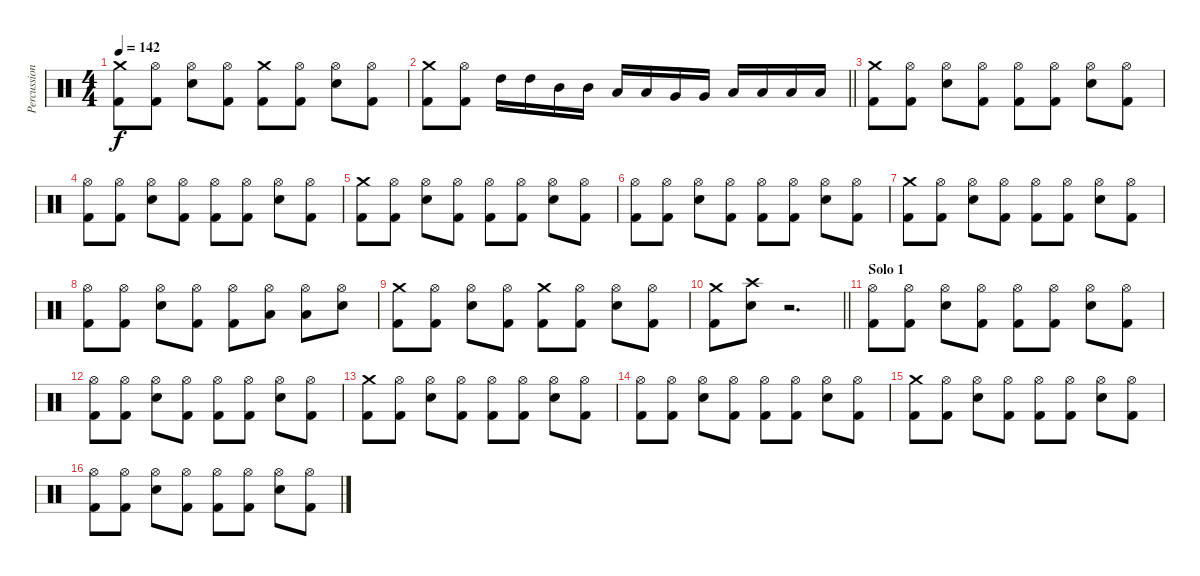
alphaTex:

\track ("Percussions" "Percussion") {instrument percussion}
\staff {score}
\articulation defaults
\ts (4 4)
\tempo 142
\clef neutral
\ks c
("Crash medium (hit)" "Kick (hit) 2").8{dy f} ("Hi-Hat (open)" "Kick (hit) 2").8 ("Hi-Hat (open)" "Electric Snare (hit)").8 ("Hi-Hat (open)" "Kick (hit) 2").8 ("Crash medium (hit)" "Kick (hit) 2").8 ("Hi-Hat (open)" "Kick (hit) 2").8 ("Hi-Hat (open)" "Electric Snare (hit)").8 ("Hi-Hat (open)" "Kick (hit) 2").8 |
\barLineRight lightlight
("Crash medium (hit)" "Kick (hit) 2").8 ("Hi-Hat (open)" "Kick (hit) 2").8 "High Tom (hit)".16 "High Tom (hit)".16 "Mid Tom (hit)".16 "Mid Tom (hit)".16 "Low Tom (hit)".16 "Low Tom (hit)".16 "Very Low Tom (hit)".16 "Very Low Tom (hit)".16 "Low Floor Tom (hit)".16 "Low Floor Tom (hit)".16 "Low Floor Tom (hit)".16 "Low Floor Tom (hit)".16 |
("Crash medium (hit)" "Kick (hit) 2").8 ("Hi-Hat (open)" "Kick (hit) 2").8 ("Hi-Hat (open)" "Electric Snare (hit)").8 ("Hi-Hat (open)" "Kick (hit) 2").8 ("Hi-Hat (open)" "Kick (hit) 2").8 ("Hi-Hat (open)" "Kick (hit) 2").8 ("Hi-Hat (open)" "Electric Snare (hit)").8 ("Hi-Hat (open)" "Kick (hit) 2").8 |
("Hi-Hat (open)" "Kick (hit) 2").8 ("Hi-Hat (open)" "Kick (hit) 2").8 ("Hi-Hat (open)" "Electric Snare (hit)").8 ("Hi-Hat (open)" "Kick (hit) 2").8 ("Hi-Hat (open)" "Kick (hit) 2").8 ("Hi-Hat (open)" "Kick (hit) 2").8 ("Hi-Hat (open)" "Electric Snare (hit)").8 ("Hi-Hat (open)" "Kick (hit) 2").8 |
("Crash medium (hit)" "Kick (hit) 2").8 ("Hi-Hat (open)" "Kick (hit) 2").8 ("Hi-Hat (open)" "Electric Snare (hit)").8 ("Hi-Hat (open)" "Kick (hit) 2").8 ("Hi-Hat (open)" "Kick (hit) 2").8 ("Hi-Hat (open)" "Kick (hit) 2").8 ("Hi-Hat (open)" "Electric Snare (hit)").8 ("Hi-Hat (open)" "Kick (hit) 2").8 |
("Hi-Hat (open)" "Kick (hit) 2").8 ("Hi-Hat (open)" "Kick (hit) 2").8 ("Hi-Hat (open)" "Electric Snare (hit)").8 ("Hi-Hat (open)" "Kick (hit) 2").8 ("Hi-Hat (open)" "Kick (hit) 2").8 ("Hi-Hat (open)" "Kick (hit) 2").8 ("Hi-Hat (open)" "Electric Snare (hit)").8 ("Hi-Hat (open)" "Kick (hit) 2").8 |
("Crash medium (hit)" "Kick (hit) 2").8 ("Hi-Hat (open)" "Kick (hit) 2").8 ("Hi-Hat (open)" "Electric Snare (hit)").8 ("Hi-Hat (open)" "Kick (hit) 2").8 ("Hi-Hat (open)" "Kick (hit) 2").8 ("Hi-Hat (open)" "Kick (hit) 2").8 ("Hi-Hat (open)" "Electric Snare (hit)").8 ("Hi-Hat (open)" "Kick (hit) 2").8 |
("Hi-Hat (open)" "Kick (hit) 2").8 ("Hi-Hat (open)" "Kick (hit) 2").8 ("Hi-Hat (open)" "Electric Snare (hit)").8 ("Hi-Hat (open)" "Kick (hit) 2").8 ("Hi-Hat (open)" "Kick (hit) 2").8 ("Hi-Hat (open)" "Low Floor Tom (hit)").8 ("Hi-Hat (open)" "Low Floor Tom (hit)").8 ("Hi-Hat (open)" "Electric Snare (hit)").8 |
("Crash medium (hit)" "Kick (hit) 2").8 ("Hi-Hat (open)" "Kick (hit) 2").8 ("Hi-Hat (open)" "Electric Snare (hit)").8 ("Hi-Hat (open)" "Kick (hit) 2").8 ("Crash medium (hit)" "Kick (hit) 2").8 ("Hi-Hat (open)" "Kick (hit) 2").8 ("Hi-Hat (open)" "Electric Snare (hit)").8 ("Hi-Hat (open)" "Kick (hit) 2").8 |
\barLineRight lightlight
("Crash medium (hit)" "Kick (hit) 2").8 ("Crash high (hit)" "Electric Snare (hit)").8 r.2{d} |
\section ("" "Solo 1")
("Hi-Hat (open)" "Kick (hit) 2").8 ("Hi-Hat (open)" "Kick (hit) 2").8 ("Hi-Hat (open)" "Electric Snare (hit)").8 ("Hi-Hat (open)" "Kick (hit) 2").8 ("Hi-Hat (open)" "Kick (hit) 2").8 ("Hi-Hat (open)" "Kick (hit) 2").8 ("Hi-Hat (open)" "Electric Snare (hit)").8 ("Hi-Hat (open)" "Kick (hit) 2").8 |
("Hi-Hat (open)" "Kick (hit) 2").8 ("Hi-Hat (open)" "Kick (hit) 2").8 ("Hi-Hat (open)" "Electric Snare (hit)").8 ("Hi-Hat (open)" "Kick (hit) 2").8 ("Hi-Hat (open)" "Kick (hit) 2").8 ("Hi-Hat (open)" "Kick (hit) 2").8 ("Hi-Hat (open)" "Electric Snare (hit)").8 ("Hi-Hat (open)" "Kick (hit) 2").8 |
("Crash medium (hit)" "Kick (hit) 2").8 ("Hi-Hat (open)" "Kick (hit) 2").8 ("Hi-Hat (open)" "Electric Snare (hit)").8 ("Hi-Hat (open)" "Kick (hit) 2").8 ("Hi-Hat (open)" "Kick (hit) 2").8 ("Hi-Hat (open)" "Kick (hit) 2").8 ("Hi-Hat (open)" "Electric Snare (hit)").8 ("Hi-Hat (open)" "Kick (hit) 2").8 |
("Hi-Hat (open)" "Kick (hit) 2").8 ("Hi-Hat (open)" "Kick (hit) 2").8 ("Hi-Hat (open)" "Electric Snare (hit)").8 ("Hi-Hat (open)" "Kick (hit) 2").8 ("Hi-Hat (open)" "Kick (hit) 2").8 ("Hi-Hat (open)" "Kick (hit) 2").8 ("Hi-Hat (open)" "Electric Snare (hit)").8 ("Hi-Hat (open)" "Kick (hit) 2").8 |
("Crash medium (hit)" "Kick (hit) 2").8 ("Hi-Hat (open)" "Kick (hit) 2").8 ("Hi-Hat (open)" "Electric Snare (hit)").8 ("Hi-Hat (open)" "Kick (hit) 2").8 ("Hi-Hat (open)" "Kick (hit) 2").8 ("Hi-Hat (open)" "Kick (hit) 2").8 ("Hi-Hat (open)" "Electric Snare (hit)").8 ("Hi-Hat (open)" "Kick (hit) 2").8 |
("Hi-Hat (open)" "Kick (hit) 2").8 ("Hi-Hat (open)" "Kick (hit) 2").8 ("Hi-Hat (open)" "Electric Snare (hit)").8 ("Hi-Hat (open)" "Kick (hit) 2").8 ("Hi-Hat (open)" "Kick (hit) 2").8 ("Hi-Hat (open)" "Kick (hit) 2").8 ("Hi-Hat (open)" "Electric Snare (hit)").8 ("Hi-Hat (open)" "Kick (hit) 2").8
